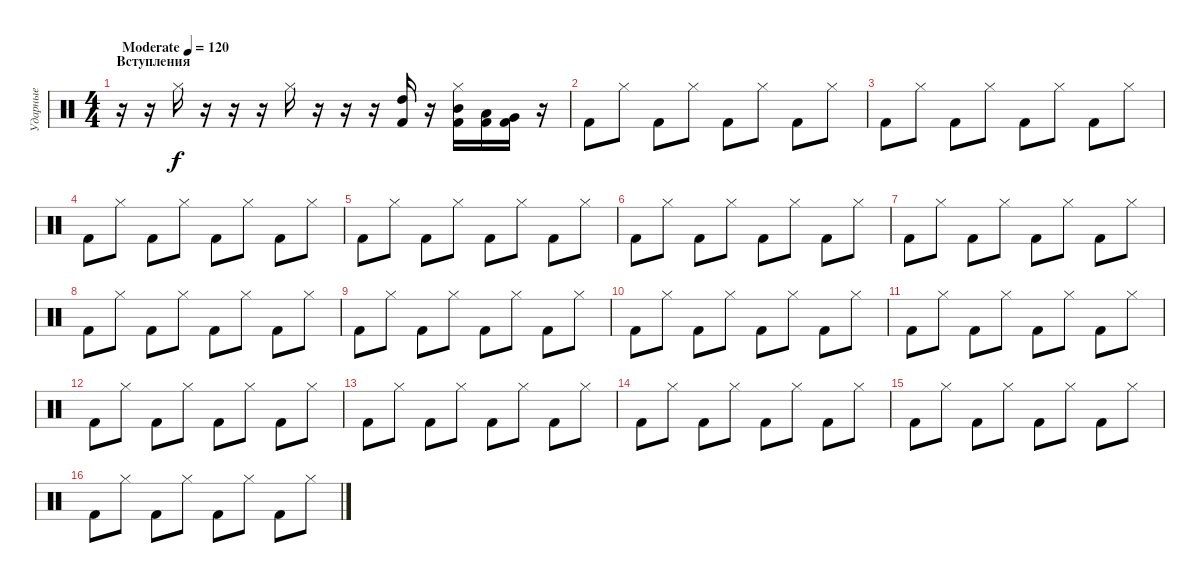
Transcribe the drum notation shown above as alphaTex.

\track ("Ударные" "Ударные") {instrument percussion}
\staff {score}
\articulation defaults
\ts (4 4)
\section ("" "Вступления")
\tempo (120 "Moderate")
\clef neutral
\ks c
r.16{dy f} r.16 "Hi-Hat (closed)".16 r.16 r.16 r.16 "Hi-Hat (closed)".16 r.16 r.16 r.16 ("Kick (hit) 2" "High Tom (hit)").16 r.16 ("Hi-Hat (closed)" "Kick (hit) 2" "Mid Tom (hit)").16 ("Kick (hit) 2" "Low Tom (hit)").16 ("Kick (hit) 2" "Very Low Tom (hit)").16 r.16 |
"Kick (hit) 2".8 "Hi-Hat (closed)".8 "Kick (hit) 2".8 "Hi-Hat (closed)".8 "Kick (hit) 2".8 "Hi-Hat (closed)".8 "Kick (hit) 2".8 "Hi-Hat (closed)".8 |
"Kick (hit) 2".8 "Hi-Hat (closed)".8 "Kick (hit) 2".8 "Hi-Hat (closed)".8 "Kick (hit) 2".8 "Hi-Hat (closed)".8 "Kick (hit) 2".8 "Hi-Hat (closed)".8 |
"Kick (hit) 2".8 "Hi-Hat (closed)".8 "Kick (hit) 2".8 "Hi-Hat (closed)".8 "Kick (hit) 2".8 "Hi-Hat (closed)".8 "Kick (hit) 2".8 "Hi-Hat (closed)".8 |
"Kick (hit) 2".8 "Hi-Hat (closed)".8 "Kick (hit) 2".8 "Hi-Hat (closed)".8 "Kick (hit) 2".8 "Hi-Hat (closed)".8 "Kick (hit) 2".8 "Hi-Hat (closed)".8 |
"Kick (hit) 2".8 "Hi-Hat (closed)".8 "Kick (hit) 2".8 "Hi-Hat (closed)".8 "Kick (hit) 2".8 "Hi-Hat (closed)".8 "Kick (hit) 2".8 "Hi-Hat (closed)".8 |
"Kick (hit) 2".8 "Hi-Hat (closed)".8 "Kick (hit) 2".8 "Hi-Hat (closed)".8 "Kick (hit) 2".8 "Hi-Hat (closed)".8 "Kick (hit) 2".8 "Hi-Hat (closed)".8 |
"Kick (hit) 2".8 "Hi-Hat (closed)".8 "Kick (hit) 2".8 "Hi-Hat (closed)".8 "Kick (hit) 2".8 "Hi-Hat (closed)".8 "Kick (hit) 2".8 "Hi-Hat (closed)".8 |
"Kick (hit) 2".8 "Hi-Hat (closed)".8 "Kick (hit) 2".8 "Hi-Hat (closed)".8 "Kick (hit) 2".8 "Hi-Hat (closed)".8 "Kick (hit) 2".8 "Hi-Hat (closed)".8 |
"Kick (hit) 2".8 "Hi-Hat (closed)".8 "Kick (hit) 2".8 "Hi-Hat (closed)".8 "Kick (hit) 2".8 "Hi-Hat (closed)".8 "Kick (hit) 2".8 "Hi-Hat (closed)".8 |
"Kick (hit) 2".8 "Hi-Hat (closed)".8 "Kick (hit) 2".8 "Hi-Hat (closed)".8 "Kick (hit) 2".8 "Hi-Hat (closed)".8 "Kick (hit) 2".8 "Hi-Hat (closed)".8 |
"Kick (hit) 2".8 "Hi-Hat (closed)".8 "Kick (hit) 2".8 "Hi-Hat (closed)".8 "Kick (hit) 2".8 "Hi-Hat (closed)".8 "Kick (hit) 2".8 "Hi-Hat (closed)".8 |
"Kick (hit) 2".8 "Hi-Hat (closed)".8 "Kick (hit) 2".8 "Hi-Hat (closed)".8 "Kick (hit) 2".8 "Hi-Hat (closed)".8 "Kick (hit) 2".8 "Hi-Hat (closed)".8 |
"Kick (hit) 2".8 "Hi-Hat (closed)".8 "Kick (hit) 2".8 "Hi-Hat (closed)".8 "Kick (hit) 2".8 "Hi-Hat (closed)".8 "Kick (hit) 2".8 "Hi-Hat (closed)".8 |
"Kick (hit) 2".8 "Hi-Hat (closed)".8 "Kick (hit) 2".8 "Hi-Hat (closed)".8 "Kick (hit) 2".8 "Hi-Hat (closed)".8 "Kick (hit) 2".8 "Hi-Hat (closed)".8 |
"Kick (hit) 2".8 "Hi-Hat (closed)".8 "Kick (hit) 2".8 "Hi-Hat (closed)".8 "Kick (hit) 2".8 "Hi-Hat (closed)".8 "Kick (hit) 2".8 "Hi-Hat (closed)".8
